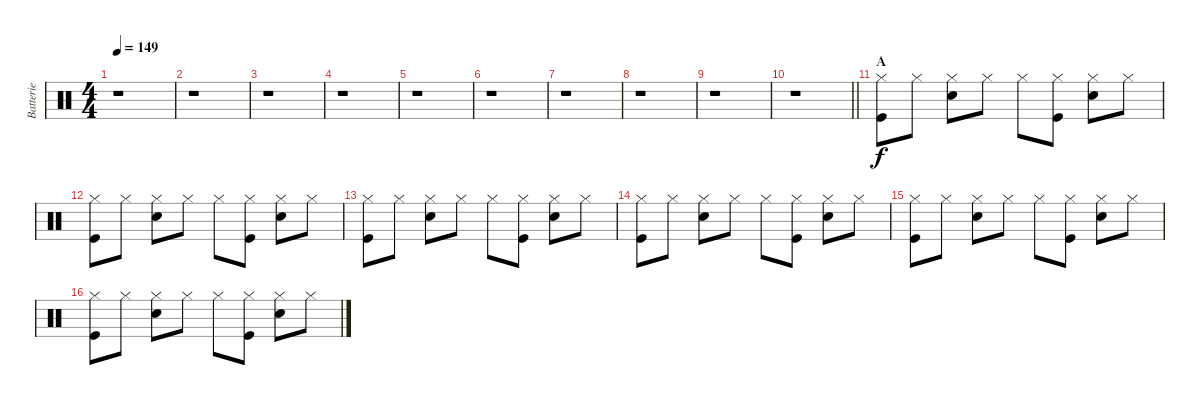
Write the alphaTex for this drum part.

\track ("Batterie" "Batterie") {instrument percussion}
\staff {score}
\articulation defaults
\ts (4 4)
\tempo 149
\clef neutral
\ks c
r.1{dy f} |
r.1 |
r.1 |
r.1 |
r.1 |
r.1 |
r.1 |
r.1 |
r.1 |
\barLineRight lightlight
r.1 |
\section ("" "A")
("Hi-Hat (closed)" "Kick (hit)").8 "Hi-Hat (closed)".8 ("Hi-Hat (closed)" "Snare (hit) 2").8 "Hi-Hat (closed)".8 "Hi-Hat (closed)".8 ("Hi-Hat (closed)" "Kick (hit)").8 ("Hi-Hat (closed)" "Snare (hit) 2").8 "Hi-Hat (closed)".8 |
("Hi-Hat (closed)" "Kick (hit)").8 "Hi-Hat (closed)".8 ("Hi-Hat (closed)" "Snare (hit) 2").8 "Hi-Hat (closed)".8 "Hi-Hat (closed)".8 ("Hi-Hat (closed)" "Kick (hit)").8 ("Hi-Hat (closed)" "Snare (hit) 2").8 "Hi-Hat (closed)".8 |
("Hi-Hat (closed)" "Kick (hit)").8 "Hi-Hat (closed)".8 ("Hi-Hat (closed)" "Snare (hit) 2").8 "Hi-Hat (closed)".8 "Hi-Hat (closed)".8 ("Hi-Hat (closed)" "Kick (hit)").8 ("Hi-Hat (closed)" "Snare (hit) 2").8 "Hi-Hat (closed)".8 |
("Hi-Hat (closed)" "Kick (hit)").8 "Hi-Hat (closed)".8 ("Hi-Hat (closed)" "Snare (hit) 2").8 "Hi-Hat (closed)".8 "Hi-Hat (closed)".8 ("Hi-Hat (closed)" "Kick (hit)").8 ("Hi-Hat (closed)" "Snare (hit) 2").8 "Hi-Hat (closed)".8 |
("Hi-Hat (closed)" "Kick (hit)").8 "Hi-Hat (closed)".8 ("Hi-Hat (closed)" "Snare (hit) 2").8 "Hi-Hat (closed)".8 "Hi-Hat (closed)".8 ("Hi-Hat (closed)" "Kick (hit)").8 ("Hi-Hat (closed)" "Snare (hit) 2").8 "Hi-Hat (closed)".8 |
("Hi-Hat (closed)" "Kick (hit)").8 "Hi-Hat (closed)".8 ("Hi-Hat (closed)" "Snare (hit) 2").8 "Hi-Hat (closed)".8 "Hi-Hat (closed)".8 ("Hi-Hat (closed)" "Kick (hit)").8 ("Hi-Hat (closed)" "Snare (hit) 2").8 "Hi-Hat (closed)".8
